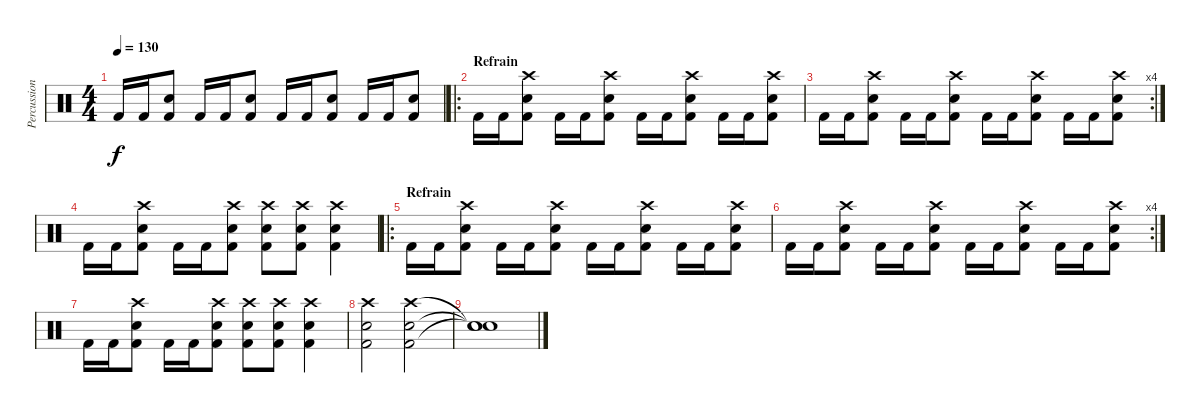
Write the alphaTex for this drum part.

\track ("Percussions" "Percussion") {instrument percussion}
\staff {score}
\articulation defaults
\ts (4 4)
\tempo 130
\clef neutral
\ks c "Kick (hit) 2".16{dy f} "Kick (hit) 2".16
("Snare (hit) 2" "Kick (hit) 2").8 "Kick (hit) 2".16 "Kick (hit) 2".16 ("Snare (hit) 2" "Kick (hit) 2").8 "Kick (hit) 2".16 "Kick (hit) 2".16 ("Snare (hit) 2" "Kick (hit) 2").8 "Kick (hit) 2".16 "Kick (hit) 2".16 ("Snare (hit) 2" "Kick (hit) 2").8 |
\ro
\section ("" "Refrain")
"Kick (hit) 2".16 "Kick (hit) 2".16 ("Snare (hit) 2" "Kick (hit) 2" "Crash high (hit)").8 "Kick (hit) 2".16 "Kick (hit) 2".16 ("Snare (hit) 2" "Kick (hit) 2" "Crash high (hit)").8 "Kick (hit) 2".16 "Kick (hit) 2".16 ("Snare (hit) 2" "Kick (hit) 2" "Crash high (hit)").8 "Kick (hit) 2".16 "Kick (hit) 2".16 ("Snare (hit) 2" "Kick (hit) 2" "Crash high (hit)").8 |
\rc 4 "Kick (hit) 2".16 "Kick (hit) 2".16
("Snare (hit) 2" "Kick (hit) 2" "Crash high (hit)").8 "Kick (hit) 2".16 "Kick (hit) 2".16 ("Snare (hit) 2" "Kick (hit) 2" "Crash high (hit)").8 "Kick (hit) 2".16 "Kick (hit) 2".16 ("Snare (hit) 2" "Kick (hit) 2" "Crash high (hit)").8 "Kick (hit) 2".16 "Kick (hit) 2".16 ("Snare (hit) 2" "Kick (hit) 2" "Crash high (hit)").8 |
"Kick (hit) 2".16 "Kick (hit) 2".16 ("Snare (hit) 2" "Kick (hit) 2" "Crash high (hit)").8 "Kick (hit) 2".16 "Kick (hit) 2".16 ("Snare (hit) 2" "Kick (hit) 2" "Crash high (hit)").8 ("Snare (hit) 2" "Kick (hit) 2" "Crash high (hit)").8 ("Snare (hit) 2" "Kick (hit) 2" "Crash high (hit)").8 ("Snare (hit) 2" "Kick (hit) 2" "Crash high (hit)").4 |
\ro
\section ("" "Refrain")
"Kick (hit) 2".16 "Kick (hit) 2".16 ("Snare (hit) 2" "Kick (hit) 2" "Crash high (hit)").8 "Kick (hit) 2".16 "Kick (hit) 2".16 ("Snare (hit) 2" "Kick (hit) 2" "Crash high (hit)").8 "Kick (hit) 2".16 "Kick (hit) 2".16 ("Snare (hit) 2" "Kick (hit) 2" "Crash high (hit)").8 "Kick (hit) 2".16 "Kick (hit) 2".16 ("Snare (hit) 2" "Kick (hit) 2" "Crash high (hit)").8 |
\rc 4 "Kick (hit) 2".16 "Kick (hit) 2".16
("Snare (hit) 2" "Kick (hit) 2" "Crash high (hit)").8 "Kick (hit) 2".16 "Kick (hit) 2".16 ("Snare (hit) 2" "Kick (hit) 2" "Crash high (hit)").8 "Kick (hit) 2".16 "Kick (hit) 2".16 ("Snare (hit) 2" "Kick (hit) 2" "Crash high (hit)").8 "Kick (hit) 2".16 "Kick (hit) 2".16 ("Snare (hit) 2" "Kick (hit) 2" "Crash high (hit)").8 |
"Kick (hit) 2".16 "Kick (hit) 2".16 ("Snare (hit) 2" "Kick (hit) 2" "Crash high (hit)").8 "Kick (hit) 2".16 "Kick (hit) 2".16 ("Snare (hit) 2" "Kick (hit) 2" "Crash high (hit)").8 ("Snare (hit) 2" "Kick (hit) 2" "Crash high (hit)").8 ("Snare (hit) 2" "Kick (hit) 2" "Crash high (hit)").8 ("Snare (hit) 2" "Kick (hit) 2" "Crash high (hit)").4 |
("Snare (hit) 2" "Kick (hit) 2" "Crash high (hit)").2 ("Snare (hit) 2" "Kick (hit) 2" "Crash high (hit)").2 |
("Snare (hit)"{t} "Snare (hit)"{t} "Snare (hit)"{t}).1
